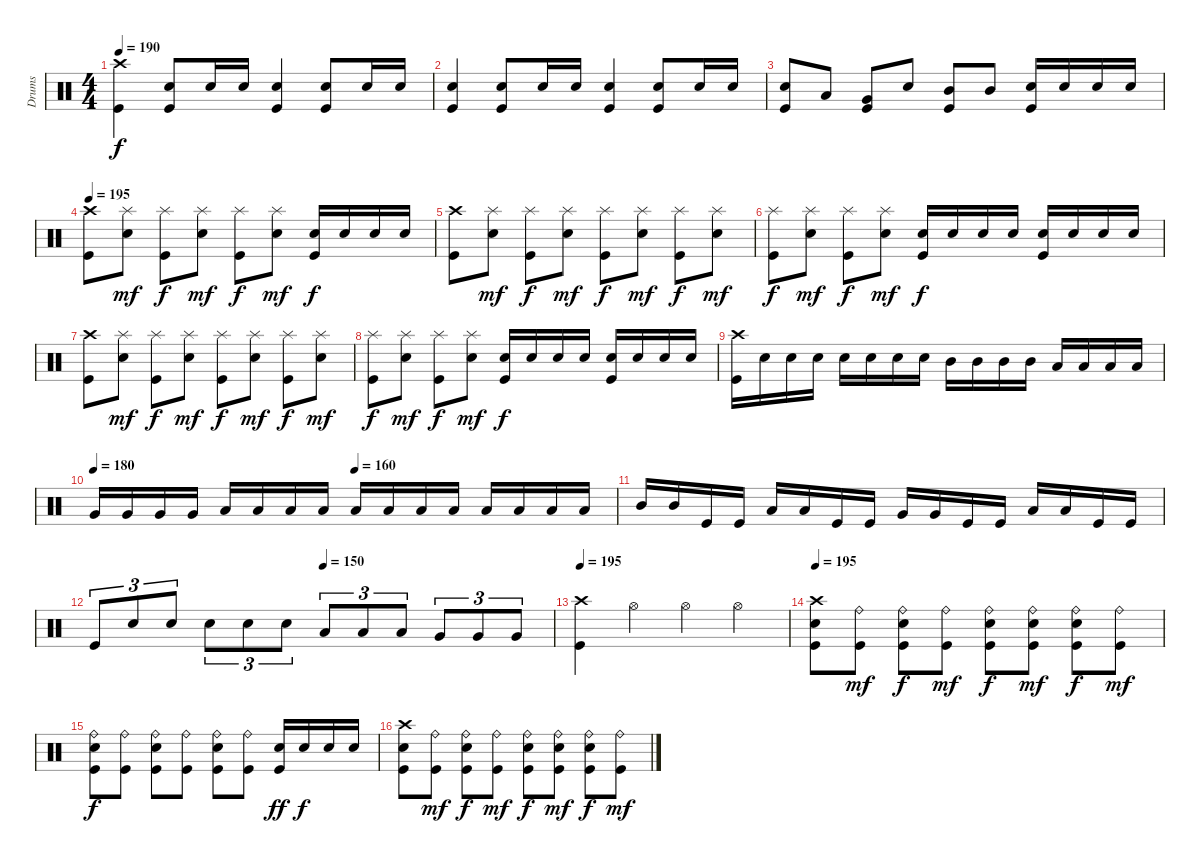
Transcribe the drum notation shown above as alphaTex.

\track ("Drums" "Drums") {instrument percussion}
\staff {score}
\articulation defaults
\ts (4 4)
\tempo 190
\clef neutral
\ks c
("Crash high (hit)" "Kick (hit)").4{dy f} ("Electric Snare (hit)" "Kick (hit)").8 "Electric Snare (hit)".16 "Electric Snare (hit)".16 ("Electric Snare (hit)" "Kick (hit)").4 ("Electric Snare (hit)" "Kick (hit)").8 "Electric Snare (hit)".16 "Electric Snare (hit)".16 |
("Electric Snare (hit)" "Kick (hit)").4 ("Electric Snare (hit)" "Kick (hit)").8 "Electric Snare (hit)".16 "Electric Snare (hit)".16 ("Electric Snare (hit)" "Kick (hit)").4 ("Electric Snare (hit)" "Kick (hit)").8 "Electric Snare (hit)".16 "Electric Snare (hit)".16 |
("Electric Snare (hit)" "Kick (hit)").8 "Low Tom (hit)".8 ("Very Low Tom (hit)" "Kick (hit)").8 "Electric Snare (hit)".8 ("Mid Tom (hit)" "Kick (hit)").8 "Mid Tom (hit)".8 ("Electric Snare (hit)" "Kick (hit)").16 "Electric Snare (hit)".16 "Electric Snare (hit)".16 "Electric Snare (hit)".16 |
\tempo 195
("Crash high (hit)" "Kick (hit)").8 ("Splash (hit)" "Electric Snare (hit)").8{dy mf} ("Splash (hit)" "Kick (hit)").8{dy f} ("Splash (hit)" "Electric Snare (hit)").8{dy mf} ("Splash (hit)" "Kick (hit)").8{dy f} ("Splash (hit)" "Electric Snare (hit)").8{dy mf} ("Electric Snare (hit)" "Kick (hit)").16{dy f} "Electric Snare (hit)".16 "Electric Snare (hit)".16 "Electric Snare (hit)".16 |
("Crash high (hit)" "Kick (hit)").8 ("Splash (hit)" "Electric Snare (hit)").8{dy mf} ("Splash (hit)" "Kick (hit)").8{dy f} ("Splash (hit)" "Electric Snare (hit)").8{dy mf} ("Splash (hit)" "Kick (hit)").8{dy f} ("Splash (hit)" "Electric Snare (hit)").8{dy mf} ("Splash (hit)" "Kick (hit)").8{dy f} ("Splash (hit)" "Electric Snare (hit)").8{dy mf} |
("Splash (hit)" "Kick (hit)").8{dy f} ("Splash (hit)" "Electric Snare (hit)").8{dy mf} ("Splash (hit)" "Kick (hit)").8{dy f} ("Splash (hit)" "Electric Snare (hit)").8{dy mf} ("Electric Snare (hit)" "Kick (hit)").16{dy f} "Electric Snare (hit)".16 "Electric Snare (hit)".16 "Electric Snare (hit)".16 ("Electric Snare (hit)" "Kick (hit)").16 "Electric Snare (hit)".16 "Electric Snare (hit)".16 "Electric Snare (hit)".16 |
("Crash high (hit)" "Kick (hit)").8 ("Splash (hit)" "Electric Snare (hit)").8{dy mf} ("Splash (hit)" "Kick (hit)").8{dy f} ("Splash (hit)" "Electric Snare (hit)").8{dy mf} ("Splash (hit)" "Kick (hit)").8{dy f} ("Splash (hit)" "Electric Snare (hit)").8{dy mf} ("Splash (hit)" "Kick (hit)").8{dy f} ("Splash (hit)" "Electric Snare (hit)").8{dy mf} |
("Splash (hit)" "Kick (hit)").8{dy f} ("Splash (hit)" "Electric Snare (hit)").8{dy mf} ("Splash (hit)" "Kick (hit)").8{dy f} ("Splash (hit)" "Electric Snare (hit)").8{dy mf} ("Electric Snare (hit)" "Kick (hit)").16{dy f} "Electric Snare (hit)".16 "Electric Snare (hit)".16 "Electric Snare (hit)".16 ("Electric Snare (hit)" "Kick (hit)").16 "Electric Snare (hit)".16 "Electric Snare (hit)".16 "Electric Snare (hit)".16 |
("Crash high (hit)" "Kick (hit)").16 "Electric Snare (hit)".16 "Electric Snare (hit)".16 "Electric Snare (hit)".16 "Electric Snare (hit)".16 "Electric Snare (hit)".16 "Electric Snare (hit)".16 "Electric Snare (hit)".16 "Mid Tom (hit)".16 "Mid Tom (hit)".16 "Mid Tom (hit)".16 "Mid Tom (hit)".16 "Low Tom (hit)".16 "Low Tom (hit)".16 "Low Tom (hit)".16 "Low Tom (hit)".16 |
\tempo 180
\tempo (160 0.5)
"Very Low Tom (hit)".16 "Very Low Tom (hit)".16 "Very Low Tom (hit)".16 "Very Low Tom (hit)".16 "Low Floor Tom (hit)".16 "Low Floor Tom (hit)".16 "Low Floor Tom (hit)".16 "Low Floor Tom (hit)".16 "Low Floor Tom (hit)".16 "Low Floor Tom (hit)".16 "Low Floor Tom (hit)".16 "Low Floor Tom (hit)".16 "Low Floor Tom (hit)".16 "Low Floor Tom (hit)".16 "Low Floor Tom (hit)".16 "Low Floor Tom (hit)".16 |
"Mid Tom (hit)".16 "Mid Tom (hit)".16 "Kick (hit)".16 "Kick (hit)".16 "Low Tom (hit)".16 "Low Tom (hit)".16 "Kick (hit)".16 "Kick (hit)".16 "Very Low Tom (hit)".16 "Very Low Tom (hit)".16 "Kick (hit)".16 "Kick (hit)".16 "Low Floor Tom (hit)".16 "Low Floor Tom (hit)".16 "Kick (hit)".16 "Kick (hit)".16 |
\tempo (150 0.5)
"Kick (hit)".8{tu (3 2)} "Electric Snare (hit)".8{tu (3 2)} "Electric Snare (hit)".8{tu (3 2)} "Electric Snare (hit)".8{tu (3 2)} "Electric Snare (hit)".8{tu (3 2)} "Electric Snare (hit)".8{tu (3 2)} "Low Tom (hit)".8{tu (3 2)} "Low Tom (hit)".8{tu (3 2)} "Low Tom (hit)".8{tu (3 2)} "Very Low Tom (hit)".8{tu (3 2)} "Very Low Tom (hit)".8{tu (3 2)} "Very Low Tom (hit)".8{tu (3 2)} |
\tempo 195
("Crash high (hit)" "Kick (hit)").4 "Hi-Hat (open)".4 "Hi-Hat (open)".4 "Hi-Hat (open)".4 |
\tempo 195
("Crash high (hit)" "Electric Snare (hit)" "Kick (hit)").8 ("Ride (bell)" "Kick (hit)").8{dy mf} ("Ride (bell)" "Electric Snare (hit)" "Kick (hit)").8{dy f} ("Ride (bell)" "Kick (hit)").8{dy mf} ("Ride (bell)" "Electric Snare (hit)" "Kick (hit)").8{dy f} ("Ride (bell)" "Electric Snare (hit)" "Kick (hit)").8{dy mf} ("Ride (bell)" "Electric Snare (hit)" "Kick (hit)").8{dy f} ("Ride (bell)" "Kick (hit)").8{dy mf} |
("Ride (bell)" "Electric Snare (hit)" "Kick (hit)").8{dy f} ("Ride (bell)" "Kick (hit)").8 ("Ride (bell)" "Electric Snare (hit)" "Kick (hit)").8 ("Ride (bell)" "Kick (hit)").8 ("Ride (bell)" "Electric Snare (hit)" "Kick (hit)").8 ("Ride (bell)" "Kick (hit)").8 ("Electric Snare (hit)" "Kick (hit)").16{dy ff} "Electric Snare (hit)".16{dy f} "Electric Snare (hit)".16 "Electric Snare (hit)".16 |
("Crash high (hit)" "Electric Snare (hit)" "Kick (hit)").8 ("Ride (bell)" "Kick (hit)").8{dy mf} ("Ride (bell)" "Electric Snare (hit)" "Kick (hit)").8{dy f} ("Ride (bell)" "Kick (hit)").8{dy mf} ("Ride (bell)" "Electric Snare (hit)" "Kick (hit)").8{dy f} ("Ride (bell)" "Electric Snare (hit)" "Kick (hit)").8{dy mf} ("Ride (bell)" "Electric Snare (hit)" "Kick (hit)").8{dy f} ("Ride (bell)" "Kick (hit)").8{dy mf}
